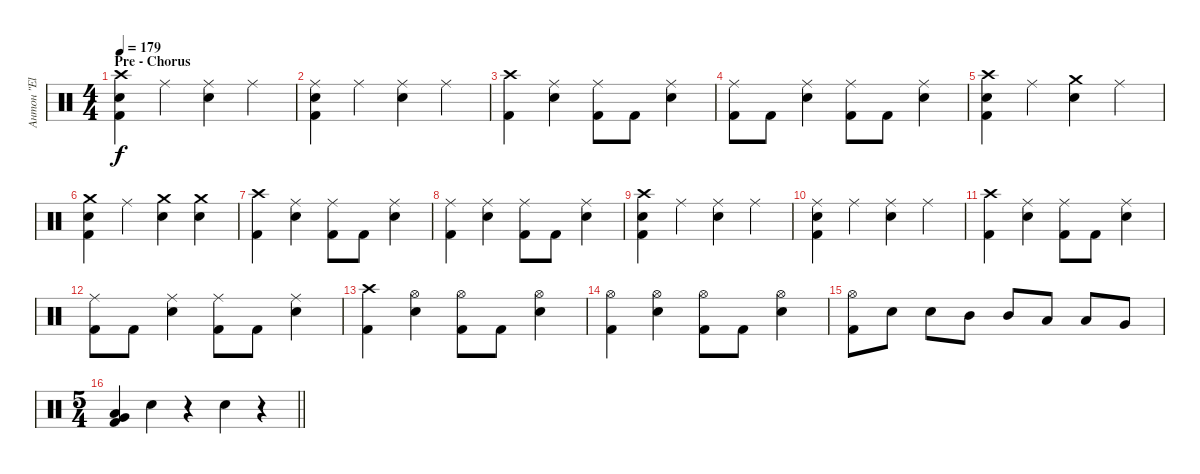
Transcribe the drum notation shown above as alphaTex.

\track ("Антон \"El Bastardo\" Смольянин" "Антон \"El ") {instrument percussion}
\staff {score}
\articulation defaults
\ts (4 4)
\section ("" "Pre - Chorus")
\tempo 179
\clef neutral
\ks c
("Crash high (hit)" "Electric Snare (hit)" "Kick (hit) 2").4{dy f} "Ride (middle)".4 ("Ride (middle)" "Electric Snare (hit)").4 "Ride (middle)".4 |
("Ride (middle)" "Electric Snare (hit)" "Kick (hit) 2").4 "Ride (middle)".4 ("Ride (middle)" "Electric Snare (hit)").4 "Ride (middle)".4 |
("Crash high (hit)" "Kick (hit) 2").4 ("Ride (middle)" "Electric Snare (hit)").4 ("Ride (middle)" "Kick (hit) 2").8 "Kick (hit) 2".8 ("Ride (middle)" "Electric Snare (hit)").4 |
("Ride (middle)" "Kick (hit) 2").8 "Kick (hit) 2".8 ("Ride (middle)" "Electric Snare (hit)").4 ("Ride (middle)" "Kick (hit) 2").8 "Kick (hit) 2".8 ("Ride (middle)" "Electric Snare (hit)").4 |
("Crash high (hit)" "Electric Snare (hit)" "Kick (hit) 2").4 "Ride (middle)".4 ("Crash medium (hit)" "Electric Snare (hit)").4 "Ride (middle)".4 |
("Crash medium (hit)" "Electric Snare (hit)" "Kick (hit) 2").4 "Ride (middle)".4 ("Crash medium (hit)" "Electric Snare (hit)").4 ("Crash medium (hit)" "Electric Snare (hit)").4 |
("Crash high (hit)" "Kick (hit) 2").4 ("Ride (middle)" "Electric Snare (hit)").4 ("Ride (middle)" "Kick (hit) 2").8 "Kick (hit) 2".8 ("Ride (middle)" "Electric Snare (hit)").4 |
("Ride (middle)" "Kick (hit) 2").4 ("Ride (middle)" "Electric Snare (hit)").4 ("Ride (middle)" "Kick (hit) 2").8 "Kick (hit) 2".8 ("Ride (middle)" "Electric Snare (hit)").4 |
("Crash high (hit)" "Electric Snare (hit)" "Kick (hit) 2").4 "Ride (middle)".4 ("Ride (middle)" "Electric Snare (hit)").4 "Ride (middle)".4 |
("Ride (middle)" "Electric Snare (hit)" "Kick (hit) 2").4 "Ride (middle)".4 ("Ride (middle)" "Electric Snare (hit)").4 "Ride (middle)".4 |
("Crash high (hit)" "Kick (hit) 2").4 ("Ride (middle)" "Electric Snare (hit)").4 ("Ride (middle)" "Kick (hit) 2").8 "Kick (hit) 2".8 ("Ride (middle)" "Electric Snare (hit)").4 |
("Ride (middle)" "Kick (hit) 2").8 "Kick (hit) 2".8 ("Ride (middle)" "Electric Snare (hit)").4 ("Ride (middle)" "Kick (hit) 2").8 "Kick (hit) 2".8 ("Ride (middle)" "Electric Snare (hit)").4 |
("Crash high (hit)" "Kick (hit) 2").4 ("Hi-Hat (open)" "Electric Snare (hit)").4 ("Hi-Hat (open)" "Kick (hit) 2").8 "Kick (hit) 2".8 ("Hi-Hat (open)" "Electric Snare (hit)").4 |
("Hi-Hat (open)" "Kick (hit) 2").4 ("Hi-Hat (open)" "Electric Snare (hit)").4 ("Hi-Hat (open)" "Kick (hit) 2").8 "Kick (hit) 2".8 ("Hi-Hat (open)" "Electric Snare (hit)").4 |
("Hi-Hat (open)" "Kick (hit) 2").8 "Electric Snare (hit)".8 "Electric Snare (hit)".8 "Mid Tom (hit)".8 "Mid Tom (hit)".8 "Low Tom (hit)".8 "Low Tom (hit)".8 "Very Low Tom (hit)".8 |
\ts (5 4)
\barLineRight lightlight
("Very Low Tom (hit)" "Low Floor Tom (hit)" "Kick (hit) 2").4 "Electric Snare (hit)".4 r.4 "Electric Snare (hit)".4 r.4
